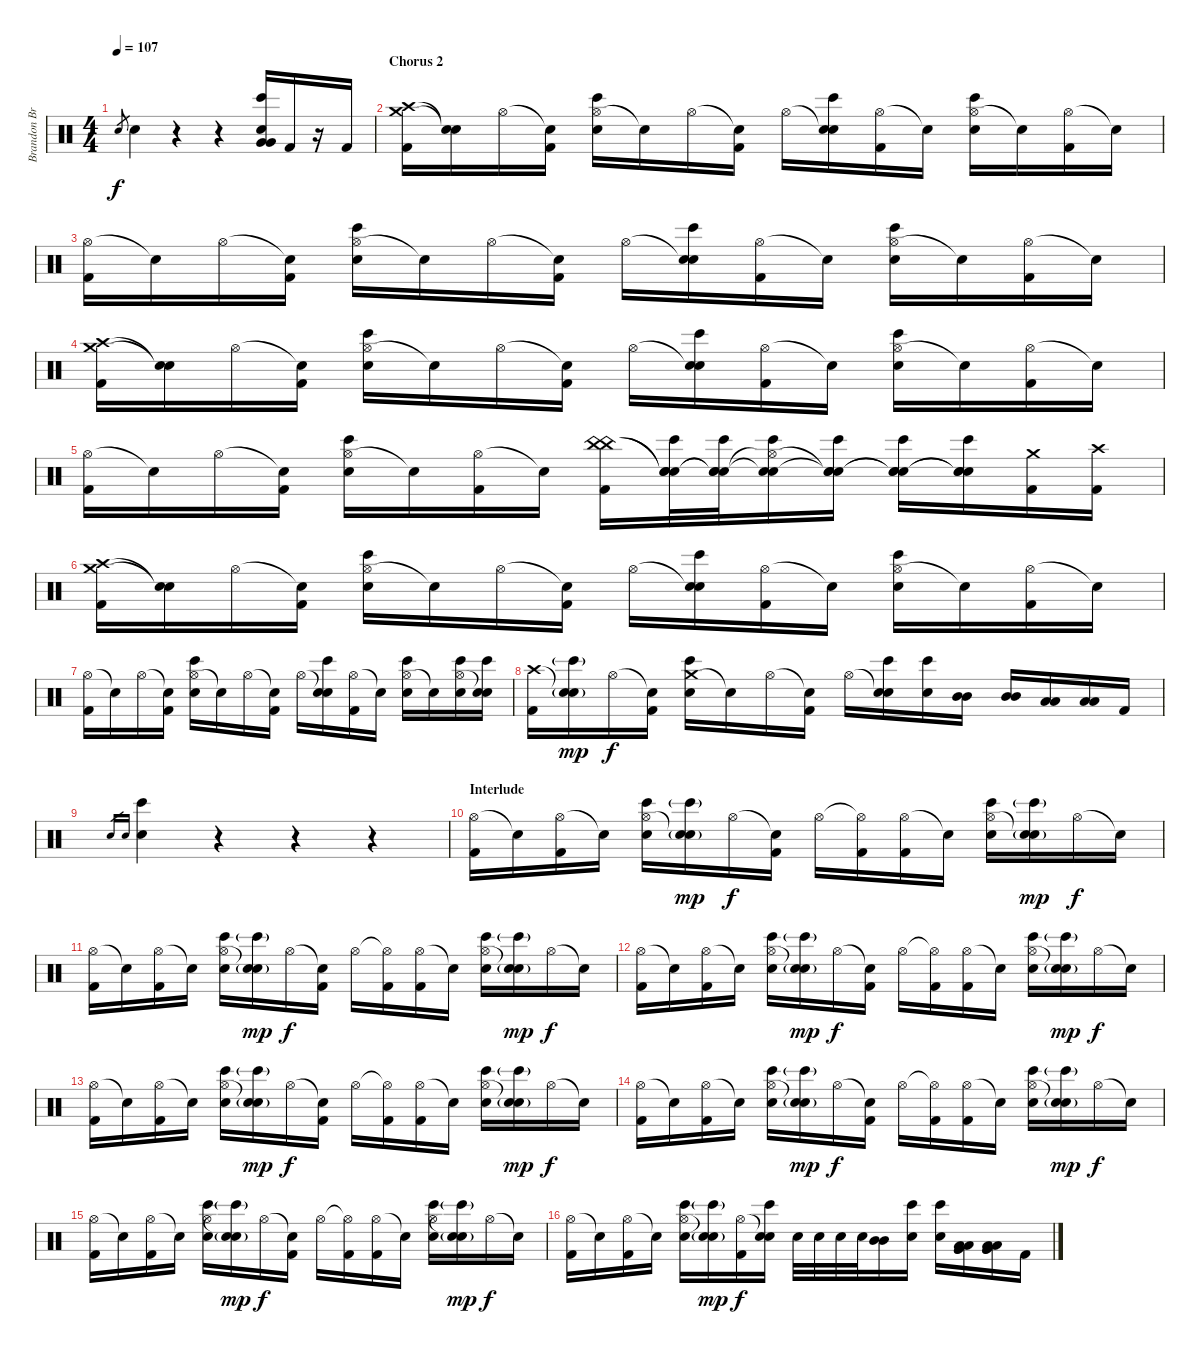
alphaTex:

\track ("Brandon Brown (Drums)" "Brandon Br") {instrument percussion}
\staff {score}
\articulation defaults
\ts (4 4)
\tempo 107
\clef neutral
\ks c "Electric Snare (hit)".8{gr dy f} "Electric Snare (hit)".4
r.4 r.4 ("Bongo High (hit)" "Electric Snare (hit)" "Very Low Tom (hit)" "Very Low Tom (hit)").16 "Kick (hit) 2".16 r.16 "Kick (hit) 2".16 |
\section ("" "Chorus 2")
("Crash high (hit)" "Crash medium (hit)" "Kick (hit) 2").16 ("Snare (hit)"{t} "Snare (hit)"{t}).16 "Hi-Hat (open)".16 ("Snare (hit)"{t} "Kick (hit) 2").16 ("Hi-Hat (open)" "Electric Snare (hit)" "Bongo High (hit)").16 "Snare (hit)"{t}.16 "Hi-Hat (open)".16 ("Snare (hit)"{t} "Kick (hit) 2").16 "Hi-Hat (open)".16 ("Snare (hit)"{t} "Electric Snare (hit)" "Bongo High (hit)").16 ("Hi-Hat (open)" "Kick (hit) 2").16 "Snare (hit)"{t}.16 ("Hi-Hat (open)" "Electric Snare (hit)" "Bongo High (hit)").16 "Snare (hit)"{t}.16 ("Hi-Hat (open)" "Kick (hit) 2").16 "Snare (hit)"{t}.16 |
("Hi-Hat (open)" "Kick (hit) 2").16 "Snare (hit)"{t}.16 "Hi-Hat (open)".16 ("Snare (hit)"{t} "Kick (hit) 2").16 ("Hi-Hat (open)" "Electric Snare (hit)" "Bongo High (hit)").16 "Snare (hit)"{t}.16 "Hi-Hat (open)".16 ("Snare (hit)"{t} "Kick (hit) 2").16 "Hi-Hat (open)".16 ("Snare (hit)"{t} "Electric Snare (hit)" "Bongo High (hit)").16 ("Hi-Hat (open)" "Kick (hit) 2").16 "Snare (hit)"{t}.16 ("Hi-Hat (open)" "Electric Snare (hit)" "Bongo High (hit)").16 "Snare (hit)"{t}.16 ("Hi-Hat (open)" "Kick (hit) 2").16 "Snare (hit)"{t}.16 |
("Crash high (hit)" "Crash medium (hit)" "Kick (hit) 2").16 ("Snare (hit)"{t} "Snare (hit)"{t}).16 "Hi-Hat (open)".16 ("Snare (hit)"{t} "Kick (hit) 2").16 ("Hi-Hat (open)" "Electric Snare (hit)" "Bongo High (hit)").16 "Snare (hit)"{t}.16 "Hi-Hat (open)".16 ("Snare (hit)"{t} "Kick (hit) 2").16 "Hi-Hat (open)".16 ("Snare (hit)"{t} "Electric Snare (hit)" "Bongo High (hit)").16 ("Hi-Hat (open)" "Kick (hit) 2").16 "Snare (hit)"{t}.16 ("Hi-Hat (open)" "Electric Snare (hit)" "Bongo High (hit)").16 "Snare (hit)"{t}.16 ("Hi-Hat (open)" "Kick (hit) 2").16 "Snare (hit)"{t}.16 |
("Hi-Hat (open)" "Kick (hit) 2").16 "Snare (hit)"{t}.16 "Hi-Hat (open)".16 ("Snare (hit)"{t} "Kick (hit) 2").16 ("Hi-Hat (open)" "Electric Snare (hit)" "Bongo High (hit)").16 "Snare (hit)"{t}.16 ("Hi-Hat (open)" "Kick (hit) 2").16 "Snare (hit)"{t}.16 ("China (hit)" "China (hit)" "Kick (hit) 2").16 ("Snare (hit)"{t} "Snare (hit)"{t} "Electric Snare (hit)" "Bongo High (hit)").32 ("Snare (hit)"{t} "Snare (hit)"{t} "Electric Snare (hit)" "Bongo High (hit)").32 ("Hi-Hat (open)"{t} "Snare (hit)"{t} "Electric Snare (hit)" "Bongo High (hit)").16 ("Snare (hit)"{t} "Snare (hit)"{t} "Electric Snare (hit)" "Bongo High (hit)").16 ("Snare (hit)"{t} "Snare (hit)"{t} "Electric Snare (hit)" "Bongo High (hit)").16 ("Snare (hit)"{t} "Snare (hit)"{t} "Electric Snare (hit)" "Bongo High (hit)").16 ("Crash medium (hit)" "Kick (hit) 2").16 ("Crash high (hit)" "Kick (hit) 2").16 |
("Crash high (hit)" "Crash medium (hit)" "Kick (hit) 2").16 ("Snare (hit)"{t} "Snare (hit)"{t}).16 "Hi-Hat (open)".16 ("Snare (hit)"{t} "Kick (hit) 2").16 ("Hi-Hat (open)" "Electric Snare (hit)" "Bongo High (hit)").16 "Snare (hit)"{t}.16 "Hi-Hat (open)".16 ("Snare (hit)"{t} "Kick (hit) 2").16 "Hi-Hat (open)".16 ("Snare (hit)"{t} "Electric Snare (hit)" "Bongo High (hit)").16 ("Hi-Hat (open)" "Kick (hit) 2").16 "Snare (hit)"{t}.16 ("Hi-Hat (open)" "Electric Snare (hit)" "Bongo High (hit)").16 "Snare (hit)"{t}.16 ("Hi-Hat (open)" "Kick (hit) 2").16 "Snare (hit)"{t}.16 |
("Hi-Hat (open)" "Kick (hit) 2").16 "Snare (hit)"{t}.16 "Hi-Hat (open)".16 ("Snare (hit)"{t} "Kick (hit) 2").16 ("Hi-Hat (open)" "Electric Snare (hit)" "Bongo High (hit)").16 "Snare (hit)"{t}.16 "Hi-Hat (open)".16 ("Snare (hit)"{t} "Kick (hit) 2").16 "Hi-Hat (open)".16 ("Snare (hit)"{t} "Electric Snare (hit)" "Bongo High (hit)").16 ("Hi-Hat (open)" "Kick (hit) 2").16 "Snare (hit)"{t}.16 ("Hi-Hat (open)" "Electric Snare (hit)" "Bongo High (hit)").16 "Snare (hit)"{t}.16 ("Hi-Hat (open)" "Electric Snare (hit)" "Bongo High (hit)").16 ("Snare (hit)"{t} "Electric Snare (hit)" "Bongo High (hit)").16 |
("Crash high (hit)" "Kick (hit) 2").16 ("Snare (hit)"{t} "Electric Snare (hit)"{g} "Bongo High (hit)"{g}).16{dy mp} "Hi-Hat (open)".16{dy f} ("Snare (hit)"{t} "Kick (hit) 2").16 ("Crash medium (hit)" "Electric Snare (hit)" "Bongo High (hit)").16 "Snare (hit)"{t}.16 "Hi-Hat (open)".16 ("Snare (hit)"{t} "Kick (hit) 2").16 "Hi-Hat (open)".16 ("Snare (hit)"{t} "Electric Snare (hit)" "Bongo High (hit)").16 ("Electric Snare (hit)" "Bongo High (hit)").16 ("Mid Tom (hit)" "Mid Tom (hit)").16 ("Mid Tom (hit)" "Mid Tom (hit)").16 ("Low Tom (hit)" "Low Tom (hit)").16 ("Low Tom (hit)" "Low Tom (hit)").16 "Kick (hit) 2".16 |
"Electric Snare (hit)".16{gr} "Snare (hit)".16{gr} ("Electric Snare (hit)" "Bongo High (hit)").4 r.4 r.4 r.4 |
\section ("" "Interlude")
("Hi-Hat (open)" "Kick (hit) 2").16 "Snare (hit)"{t}.16 ("Hi-Hat (open)" "Kick (hit) 2").16 "Snare (hit)"{t}.16 ("Hi-Hat (open)" "Electric Snare (hit)" "Bongo High (hit)").16 ("Snare (hit)"{t} "Electric Snare (hit)"{g} "Bongo High (hit)"{g}).16{dy mp} "Hi-Hat (open)".16{dy f} ("Snare (hit)"{t} "Kick (hit) 2").16 "Hi-Hat (open)".16 ("Hi-Hat (open)"{t} "Kick (hit) 2").16 ("Hi-Hat (open)" "Kick (hit) 2").16 "Snare (hit)"{t}.16 ("Hi-Hat (open)" "Electric Snare (hit)" "Bongo High (hit)").16 ("Snare (hit)"{t} "Electric Snare (hit)"{g} "Bongo High (hit)"{g}).16{dy mp} "Hi-Hat (open)".16{dy f} "Snare (hit)"{t}.16 |
("Hi-Hat (open)" "Kick (hit) 2").16 "Snare (hit)"{t}.16 ("Hi-Hat (open)" "Kick (hit) 2").16 "Snare (hit)"{t}.16 ("Hi-Hat (open)" "Electric Snare (hit)" "Bongo High (hit)").16 ("Snare (hit)"{t} "Electric Snare (hit)"{g} "Bongo High (hit)"{g}).16{dy mp} "Hi-Hat (open)".16{dy f} ("Snare (hit)"{t} "Kick (hit) 2").16 "Hi-Hat (open)".16 ("Hi-Hat (open)"{t} "Kick (hit) 2").16 ("Hi-Hat (open)" "Kick (hit) 2").16 "Snare (hit)"{t}.16 ("Hi-Hat (open)" "Electric Snare (hit)" "Bongo High (hit)").16 ("Snare (hit)"{t} "Electric Snare (hit)"{g} "Bongo High (hit)"{g}).16{dy mp} "Hi-Hat (open)".16{dy f} "Snare (hit)"{t}.16 |
("Hi-Hat (open)" "Kick (hit) 2").16 "Snare (hit)"{t}.16 ("Hi-Hat (open)" "Kick (hit) 2").16 "Snare (hit)"{t}.16 ("Hi-Hat (open)" "Electric Snare (hit)" "Bongo High (hit)").16 ("Snare (hit)"{t} "Electric Snare (hit)"{g} "Bongo High (hit)"{g}).16{dy mp} "Hi-Hat (open)".16{dy f} ("Snare (hit)"{t} "Kick (hit) 2").16 "Hi-Hat (open)".16 ("Hi-Hat (open)"{t} "Kick (hit) 2").16 ("Hi-Hat (open)" "Kick (hit) 2").16 "Snare (hit)"{t}.16 ("Hi-Hat (open)" "Electric Snare (hit)" "Bongo High (hit)").16 ("Snare (hit)"{t} "Electric Snare (hit)"{g} "Bongo High (hit)"{g}).16{dy mp} "Hi-Hat (open)".16{dy f} "Snare (hit)"{t}.16 |
("Hi-Hat (open)" "Kick (hit) 2").16 "Snare (hit)"{t}.16 ("Hi-Hat (open)" "Kick (hit) 2").16 "Snare (hit)"{t}.16 ("Hi-Hat (open)" "Electric Snare (hit)" "Bongo High (hit)").16 ("Snare (hit)"{t} "Electric Snare (hit)"{g} "Bongo High (hit)"{g}).16{dy mp} "Hi-Hat (open)".16{dy f} ("Snare (hit)"{t} "Kick (hit) 2").16 "Hi-Hat (open)".16 ("Hi-Hat (open)"{t} "Kick (hit) 2").16 ("Hi-Hat (open)" "Kick (hit) 2").16 "Snare (hit)"{t}.16 ("Hi-Hat (open)" "Electric Snare (hit)" "Bongo High (hit)").16 ("Snare (hit)"{t} "Electric Snare (hit)"{g} "Bongo High (hit)"{g}).16{dy mp} "Hi-Hat (open)".16{dy f} "Snare (hit)"{t}.16 |
("Hi-Hat (open)" "Kick (hit) 2").16 "Snare (hit)"{t}.16 ("Hi-Hat (open)" "Kick (hit) 2").16 "Snare (hit)"{t}.16 ("Hi-Hat (open)" "Electric Snare (hit)" "Bongo High (hit)").16 ("Snare (hit)"{t} "Electric Snare (hit)"{g} "Bongo High (hit)"{g}).16{dy mp} "Hi-Hat (open)".16{dy f} ("Snare (hit)"{t} "Kick (hit) 2").16 "Hi-Hat (open)".16 ("Hi-Hat (open)"{t} "Kick (hit) 2").16 ("Hi-Hat (open)" "Kick (hit) 2").16 "Snare (hit)"{t}.16 ("Hi-Hat (open)" "Electric Snare (hit)" "Bongo High (hit)").16 ("Snare (hit)"{t} "Electric Snare (hit)"{g} "Bongo High (hit)"{g}).16{dy mp} "Hi-Hat (open)".16{dy f} "Snare (hit)"{t}.16 |
("Hi-Hat (open)" "Kick (hit) 2").16 "Snare (hit)"{t}.16 ("Hi-Hat (open)" "Kick (hit) 2").16 "Snare (hit)"{t}.16 ("Hi-Hat (open)" "Electric Snare (hit)" "Bongo High (hit)").16 ("Snare (hit)"{t} "Electric Snare (hit)"{g} "Bongo High (hit)"{g}).16{dy mp} "Hi-Hat (open)".16{dy f} ("Snare (hit)"{t} "Kick (hit) 2").16 "Hi-Hat (open)".16 ("Hi-Hat (open)"{t} "Kick (hit) 2").16 ("Hi-Hat (open)" "Kick (hit) 2").16 "Snare (hit)"{t}.16 ("Hi-Hat (open)" "Electric Snare (hit)" "Bongo High (hit)").16 ("Snare (hit)"{t} "Electric Snare (hit)"{g} "Bongo High (hit)"{g}).16{dy mp} "Hi-Hat (open)".16{dy f} "Snare (hit)"{t}.16 |
("Hi-Hat (open)" "Kick (hit) 2").16 "Snare (hit)"{t}.16 ("Hi-Hat (open)" "Kick (hit) 2").16 "Snare (hit)"{t}.16 ("Hi-Hat (open)" "Electric Snare (hit)" "Bongo High (hit)").16 ("Snare (hit)"{t} "Electric Snare (hit)"{g} "Bongo High (hit)"{g}).16{dy mp} ("Hi-Hat (open)" "Kick (hit) 2").16{dy f} ("Snare (hit)"{t} "Electric Snare (hit)" "Bongo High (hit)").16 "Electric Snare (hit)".32 "Electric Snare (hit)".32 "Electric Snare (hit)".32 "Electric Snare (hit)".32 ("Mid Tom (hit)" "Mid Tom (hit)").16 ("Electric Snare (hit)" "Bongo High (hit)").16 ("Electric Snare (hit)" "Bongo High (hit)").16 ("Low Tom (hit)" "Low Tom (hit)" "Very Low Tom (hit)" "Very Low Tom (hit)").16 ("Low Tom (hit)" "Low Tom (hit)" "Very Low Tom (hit)" "Very Low Tom (hit)").16 "Kick (hit) 2".16
